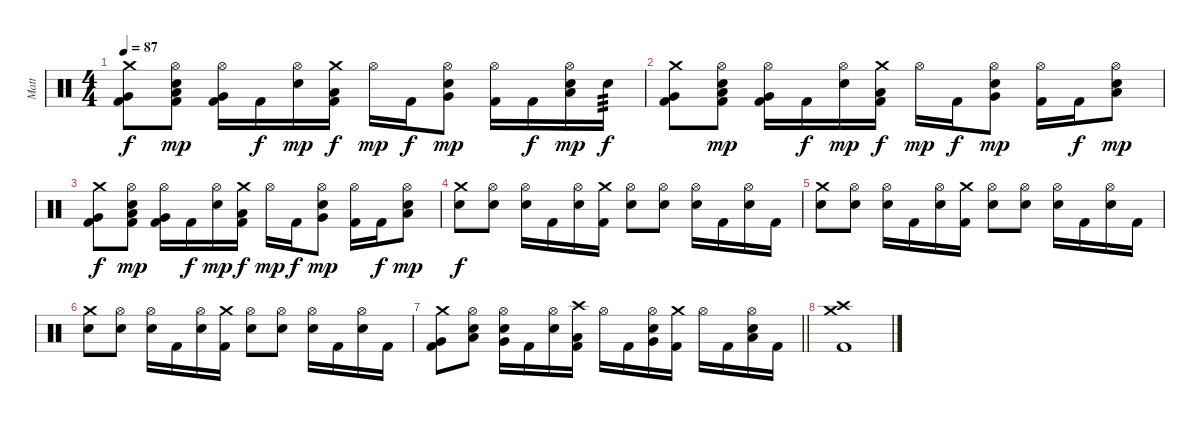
\track ("Matt" "Matt") {instrument percussion}
\staff {score}
\articulation defaults
\ts (4 4)
\tempo 87
\clef neutral
\ks c
("Crash medium (hit)" "Very Low Tom (hit)" "Kick (hit) 2").8{dy f} ("Hi-Hat (open)" "Low Tom (hit)" "Snare (hit) 2" "Kick (hit) 2").8{dy mp} ("Hi-Hat (open)" "Very Low Tom (hit)" "Kick (hit) 2").16 "Kick (hit) 2".16{dy f} ("Hi-Hat (open)" "Snare (hit) 2").16{dy mp} ("Crash medium (hit)" "Low Tom (hit)" "Kick (hit) 2").16{dy f} "Hi-Hat (open)".16{dy mp} "Kick (hit) 2".16{dy f} ("Hi-Hat (open)" "Very Low Tom (hit)" "Snare (hit) 2").8{dy mp} ("Hi-Hat (open)" "Kick (hit) 2").16 "Kick (hit) 2".16{dy f} ("Hi-Hat (open)" "Low Tom (hit)" "Snare (hit) 2").16{dy mp} "Snare (hit) 2".16{tp 3 dy f} |
("Crash medium (hit)" "Very Low Tom (hit)" "Kick (hit) 2").8 ("Hi-Hat (open)" "Low Tom (hit)" "Snare (hit) 2" "Kick (hit) 2").8{dy mp} ("Hi-Hat (open)" "Very Low Tom (hit)" "Kick (hit) 2").16 "Kick (hit) 2".16{dy f} ("Hi-Hat (open)" "Snare (hit) 2").16{dy mp} ("Crash medium (hit)" "Low Tom (hit)" "Kick (hit) 2").16{dy f} "Hi-Hat (open)".16{dy mp} "Kick (hit) 2".16{dy f} ("Hi-Hat (open)" "Very Low Tom (hit)" "Snare (hit) 2").8{dy mp} ("Hi-Hat (open)" "Kick (hit) 2").16 "Kick (hit) 2".16{dy f} ("Hi-Hat (open)" "Low Tom (hit)" "Snare (hit) 2").8{dy mp} |
("Crash medium (hit)" "Very Low Tom (hit)" "Kick (hit) 2").8{dy f} ("Hi-Hat (open)" "Low Tom (hit)" "Snare (hit) 2" "Kick (hit) 2").8{dy mp} ("Hi-Hat (open)" "Very Low Tom (hit)" "Kick (hit) 2").16 "Kick (hit) 2".16{dy f} ("Hi-Hat (open)" "Snare (hit) 2").16{dy mp} ("Crash medium (hit)" "Low Tom (hit)" "Kick (hit) 2").16{dy f} "Hi-Hat (open)".16{dy mp} "Kick (hit) 2".16{dy f} ("Hi-Hat (open)" "Very Low Tom (hit)" "Snare (hit) 2").8{dy mp} ("Hi-Hat (open)" "Kick (hit) 2").16 "Kick (hit) 2".16{dy f} ("Hi-Hat (open)" "Low Tom (hit)" "Snare (hit) 2").8{dy mp} |
("Crash medium (hit)" "Snare (hit) 2").8{dy f} ("Hi-Hat (open)" "Snare (hit) 2").8 ("Hi-Hat (open)" "Snare (hit) 2").16 "Kick (hit) 2".16 ("Hi-Hat (open)" "Snare (hit) 2").16 ("Crash medium (hit)" "Kick (hit) 2").16 ("Hi-Hat (open)" "Snare (hit) 2").8 ("Hi-Hat (open)" "Snare (hit) 2").8 ("Hi-Hat (open)" "Snare (hit) 2").16 "Kick (hit) 2".16 ("Hi-Hat (open)" "Snare (hit) 2").16 "Kick (hit) 2".16 |
("Crash medium (hit)" "Snare (hit) 2").8 ("Hi-Hat (open)" "Snare (hit) 2").8 ("Hi-Hat (open)" "Snare (hit) 2").16 "Kick (hit) 2".16 ("Hi-Hat (open)" "Snare (hit) 2").16 ("Crash medium (hit)" "Kick (hit) 2").16 ("Hi-Hat (open)" "Snare (hit) 2").8 ("Hi-Hat (open)" "Snare (hit) 2").8 ("Hi-Hat (open)" "Snare (hit) 2").16 "Kick (hit) 2".16 ("Hi-Hat (open)" "Snare (hit) 2").16 "Kick (hit) 2".16 |
("Crash medium (hit)" "Snare (hit) 2").8 ("Hi-Hat (open)" "Snare (hit) 2").8 ("Hi-Hat (open)" "Snare (hit) 2").16 "Kick (hit) 2".16 ("Hi-Hat (open)" "Snare (hit) 2").16 ("Crash medium (hit)" "Kick (hit) 2").16 ("Hi-Hat (open)" "Snare (hit) 2").8 ("Hi-Hat (open)" "Snare (hit) 2").8 ("Hi-Hat (open)" "Snare (hit) 2").16 "Kick (hit) 2".16 ("Hi-Hat (open)" "Snare (hit) 2").16 "Kick (hit) 2".16 |
\barLineRight lightlight
("Crash medium (hit)" "Very Low Tom (hit)" "Kick (hit) 2").8 ("Hi-Hat (open)" "Low Tom (hit)" "Snare (hit) 2").8 ("Hi-Hat (open)" "Very Low Tom (hit)" "Snare (hit) 2").16 "Kick (hit) 2".16 ("Hi-Hat (open)" "Snare (hit) 2").16 ("Crash high (hit)" "Low Tom (hit)" "Kick (hit) 2").16 "Hi-Hat (open)".16 "Kick (hit) 2".16 ("Hi-Hat (open)" "Very Low Tom (hit)" "Snare (hit) 2").16 ("Crash medium (hit)" "Kick (hit) 2").16 "Hi-Hat (open)".16 "Kick (hit) 2".16 ("Hi-Hat (open)" "Low Tom (hit)" "Snare (hit) 2").16 "Kick (hit) 2".16 |
("Crash high (hit)" "Crash medium (hit)" "Kick (hit) 2").1
